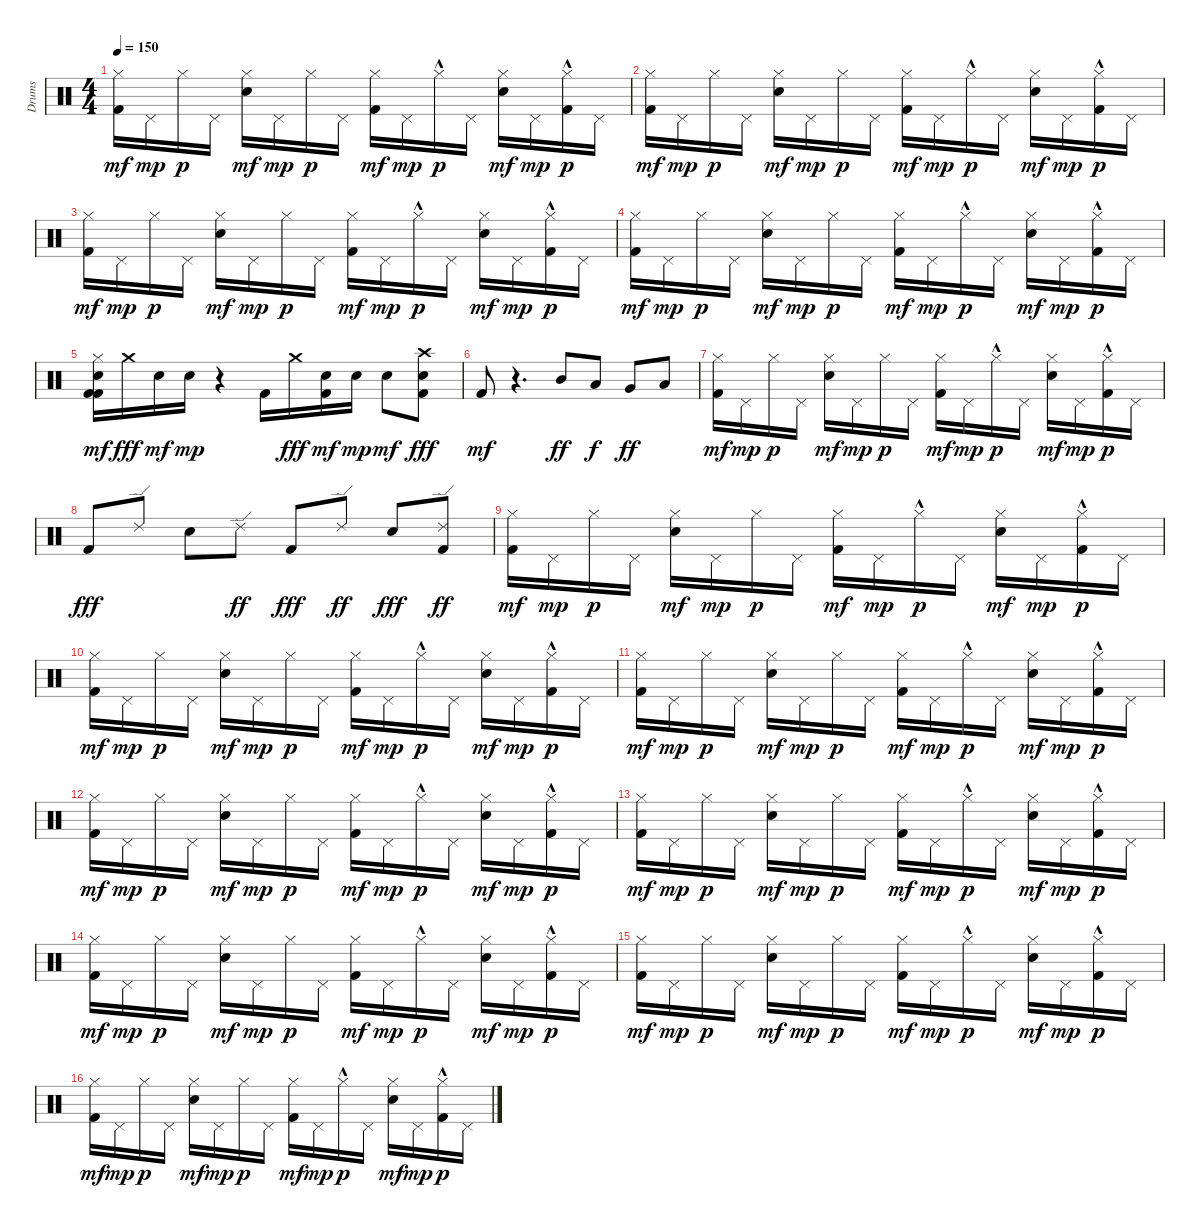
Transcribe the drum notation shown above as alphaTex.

\track ("Drums" "Drums") {instrument percussion}
\staff {score}
\articulation defaults
\ts (4 4)
\tempo 150
\clef neutral
\ks c
("Kick (hit) 2" "Hi-Hat (closed)").16{dy mf} "Pedal Hi-Hat (hit)".16{dy mp} "Hi-Hat (closed)".16{dy p} "Pedal Hi-Hat (hit)".16 ("Snare (hit) 2" "Hi-Hat (closed)").16{dy mf} "Pedal Hi-Hat (hit)".16{dy mp} "Hi-Hat (closed)".16{dy p} "Pedal Hi-Hat (hit)".16 ("Kick (hit) 2" "Hi-Hat (closed)").16{dy mf} "Pedal Hi-Hat (hit)".16{dy mp} "Hi-Hat (closed)"{hac}.16{dy p} "Pedal Hi-Hat (hit)".16 ("Snare (hit) 2" "Hi-Hat (closed)").16{dy mf} "Pedal Hi-Hat (hit)".16{dy mp} ("Kick (hit) 2" "Hi-Hat (closed)"{hac}).16{dy p} "Pedal Hi-Hat (hit)".16 |
("Kick (hit) 2" "Hi-Hat (closed)").16{dy mf} "Pedal Hi-Hat (hit)".16{dy mp} "Hi-Hat (closed)".16{dy p} "Pedal Hi-Hat (hit)".16 ("Snare (hit) 2" "Hi-Hat (closed)").16{dy mf} "Pedal Hi-Hat (hit)".16{dy mp} "Hi-Hat (closed)".16{dy p} "Pedal Hi-Hat (hit)".16 ("Kick (hit) 2" "Hi-Hat (closed)").16{dy mf} "Pedal Hi-Hat (hit)".16{dy mp} "Hi-Hat (closed)"{hac}.16{dy p} "Pedal Hi-Hat (hit)".16 ("Snare (hit) 2" "Hi-Hat (closed)").16{dy mf} "Pedal Hi-Hat (hit)".16{dy mp} ("Kick (hit) 2" "Hi-Hat (closed)"{hac}).16{dy p} "Pedal Hi-Hat (hit)".16 |
("Kick (hit) 2" "Hi-Hat (closed)").16{dy mf} "Pedal Hi-Hat (hit)".16{dy mp} "Hi-Hat (closed)".16{dy p} "Pedal Hi-Hat (hit)".16 ("Snare (hit) 2" "Hi-Hat (closed)").16{dy mf} "Pedal Hi-Hat (hit)".16{dy mp} "Hi-Hat (closed)".16{dy p} "Pedal Hi-Hat (hit)".16 ("Kick (hit) 2" "Hi-Hat (closed)").16{dy mf} "Pedal Hi-Hat (hit)".16{dy mp} "Hi-Hat (closed)"{hac}.16{dy p} "Pedal Hi-Hat (hit)".16 ("Snare (hit) 2" "Hi-Hat (closed)").16{dy mf} "Pedal Hi-Hat (hit)".16{dy mp} ("Kick (hit) 2" "Hi-Hat (closed)"{hac}).16{dy p} "Pedal Hi-Hat (hit)".16 |
("Kick (hit) 2" "Hi-Hat (closed)").16{dy mf} "Pedal Hi-Hat (hit)".16{dy mp} "Hi-Hat (closed)".16{dy p} "Pedal Hi-Hat (hit)".16 ("Snare (hit) 2" "Hi-Hat (closed)").16{dy mf} "Pedal Hi-Hat (hit)".16{dy mp} "Hi-Hat (closed)".16{dy p} "Pedal Hi-Hat (hit)".16 ("Kick (hit) 2" "Hi-Hat (closed)").16{dy mf} "Pedal Hi-Hat (hit)".16{dy mp} "Hi-Hat (closed)"{hac}.16{dy p} "Pedal Hi-Hat (hit)".16 ("Snare (hit) 2" "Hi-Hat (closed)").16{dy mf} "Pedal Hi-Hat (hit)".16{dy mp} ("Kick (hit) 2" "Hi-Hat (closed)"{hac}).16{dy p} "Pedal Hi-Hat (hit)".16 |
("Kick (hit) 2" "Hi-Hat (closed)" "Snare (hit) 2" "Kick (hit) 2").16{dy mf} "Crash medium (hit)".16{dy fff} "Snare (hit) 2".16{dy mf} "Snare (hit) 2".16{dy mp} r.4 "Kick (hit) 2".16 "Crash medium (hit)".16{dy fff} ("Kick (hit) 2" "Snare (hit) 2").16{dy mf} "Snare (hit) 2".16{dy mp} "Snare (hit) 2".8{dy mf} ("Snare (hit) 2" "Kick (hit) 2" "Crash high (hit)").8{dy fff} |
"Kick (hit) 2".8{dy mf} r.4{d} "Mid Tom (hit)".8{dy ff} "Low Tom (hit)".8{dy f} "Very Low Tom (hit)".8{dy ff} "Low Floor Tom (hit)".8 |
("Kick (hit) 2" "Hi-Hat (closed)").16{dy mf} "Pedal Hi-Hat (hit)".16{dy mp} "Hi-Hat (closed)".16{dy p} "Pedal Hi-Hat (hit)".16 ("Snare (hit) 2" "Hi-Hat (closed)").16{dy mf} "Pedal Hi-Hat (hit)".16{dy mp} "Hi-Hat (closed)".16{dy p} "Pedal Hi-Hat (hit)".16 ("Kick (hit) 2" "Hi-Hat (closed)").16{dy mf} "Pedal Hi-Hat (hit)".16{dy mp} "Hi-Hat (closed)"{hac}.16{dy p} "Pedal Hi-Hat (hit)".16 ("Snare (hit) 2" "Hi-Hat (closed)").16{dy mf} "Pedal Hi-Hat (hit)".16{dy mp} ("Kick (hit) 2" "Hi-Hat (closed)"{hac}).16{dy p} "Pedal Hi-Hat (hit)".16 |
"Kick (hit) 2".8{dy fff} "Ride (edge) 2".8 "Snare (hit) 2".8 "Ride (edge) 2".8{dy ff} "Kick (hit) 2".8{dy fff} "Ride (edge) 2".8{dy ff} "Snare (hit) 2".8{dy fff} ("Kick (hit) 2" "Ride (edge) 2").8{dy ff} |
("Kick (hit) 2" "Hi-Hat (closed)").16{dy mf} "Pedal Hi-Hat (hit)".16{dy mp} "Hi-Hat (closed)".16{dy p} "Pedal Hi-Hat (hit)".16 ("Snare (hit) 2" "Hi-Hat (closed)").16{dy mf} "Pedal Hi-Hat (hit)".16{dy mp} "Hi-Hat (closed)".16{dy p} "Pedal Hi-Hat (hit)".16 ("Kick (hit) 2" "Hi-Hat (closed)").16{dy mf} "Pedal Hi-Hat (hit)".16{dy mp} "Hi-Hat (closed)"{hac}.16{dy p} "Pedal Hi-Hat (hit)".16 ("Snare (hit) 2" "Hi-Hat (closed)").16{dy mf} "Pedal Hi-Hat (hit)".16{dy mp} ("Kick (hit) 2" "Hi-Hat (closed)"{hac}).16{dy p} "Pedal Hi-Hat (hit)".16 |
("Kick (hit) 2" "Hi-Hat (closed)").16{dy mf} "Pedal Hi-Hat (hit)".16{dy mp} "Hi-Hat (closed)".16{dy p} "Pedal Hi-Hat (hit)".16 ("Snare (hit) 2" "Hi-Hat (closed)").16{dy mf} "Pedal Hi-Hat (hit)".16{dy mp} "Hi-Hat (closed)".16{dy p} "Pedal Hi-Hat (hit)".16 ("Kick (hit) 2" "Hi-Hat (closed)").16{dy mf} "Pedal Hi-Hat (hit)".16{dy mp} "Hi-Hat (closed)"{hac}.16{dy p} "Pedal Hi-Hat (hit)".16 ("Snare (hit) 2" "Hi-Hat (closed)").16{dy mf} "Pedal Hi-Hat (hit)".16{dy mp} ("Kick (hit) 2" "Hi-Hat (closed)"{hac}).16{dy p} "Pedal Hi-Hat (hit)".16 |
("Kick (hit) 2" "Hi-Hat (closed)").16{dy mf} "Pedal Hi-Hat (hit)".16{dy mp} "Hi-Hat (closed)".16{dy p} "Pedal Hi-Hat (hit)".16 ("Snare (hit) 2" "Hi-Hat (closed)").16{dy mf} "Pedal Hi-Hat (hit)".16{dy mp} "Hi-Hat (closed)".16{dy p} "Pedal Hi-Hat (hit)".16 ("Kick (hit) 2" "Hi-Hat (closed)").16{dy mf} "Pedal Hi-Hat (hit)".16{dy mp} "Hi-Hat (closed)"{hac}.16{dy p} "Pedal Hi-Hat (hit)".16 ("Snare (hit) 2" "Hi-Hat (closed)").16{dy mf} "Pedal Hi-Hat (hit)".16{dy mp} ("Kick (hit) 2" "Hi-Hat (closed)"{hac}).16{dy p} "Pedal Hi-Hat (hit)".16 |
("Kick (hit) 2" "Hi-Hat (closed)").16{dy mf} "Pedal Hi-Hat (hit)".16{dy mp} "Hi-Hat (closed)".16{dy p} "Pedal Hi-Hat (hit)".16 ("Snare (hit) 2" "Hi-Hat (closed)").16{dy mf} "Pedal Hi-Hat (hit)".16{dy mp} "Hi-Hat (closed)".16{dy p} "Pedal Hi-Hat (hit)".16 ("Kick (hit) 2" "Hi-Hat (closed)").16{dy mf} "Pedal Hi-Hat (hit)".16{dy mp} "Hi-Hat (closed)"{hac}.16{dy p} "Pedal Hi-Hat (hit)".16 ("Snare (hit) 2" "Hi-Hat (closed)").16{dy mf} "Pedal Hi-Hat (hit)".16{dy mp} ("Kick (hit) 2" "Hi-Hat (closed)"{hac}).16{dy p} "Pedal Hi-Hat (hit)".16 |
("Kick (hit) 2" "Hi-Hat (closed)").16{dy mf} "Pedal Hi-Hat (hit)".16{dy mp} "Hi-Hat (closed)".16{dy p} "Pedal Hi-Hat (hit)".16 ("Snare (hit) 2" "Hi-Hat (closed)").16{dy mf} "Pedal Hi-Hat (hit)".16{dy mp} "Hi-Hat (closed)".16{dy p} "Pedal Hi-Hat (hit)".16 ("Kick (hit) 2" "Hi-Hat (closed)").16{dy mf} "Pedal Hi-Hat (hit)".16{dy mp} "Hi-Hat (closed)"{hac}.16{dy p} "Pedal Hi-Hat (hit)".16 ("Snare (hit) 2" "Hi-Hat (closed)").16{dy mf} "Pedal Hi-Hat (hit)".16{dy mp} ("Kick (hit) 2" "Hi-Hat (closed)"{hac}).16{dy p} "Pedal Hi-Hat (hit)".16 |
("Kick (hit) 2" "Hi-Hat (closed)").16{dy mf} "Pedal Hi-Hat (hit)".16{dy mp} "Hi-Hat (closed)".16{dy p} "Pedal Hi-Hat (hit)".16 ("Snare (hit) 2" "Hi-Hat (closed)").16{dy mf} "Pedal Hi-Hat (hit)".16{dy mp} "Hi-Hat (closed)".16{dy p} "Pedal Hi-Hat (hit)".16 ("Kick (hit) 2" "Hi-Hat (closed)").16{dy mf} "Pedal Hi-Hat (hit)".16{dy mp} "Hi-Hat (closed)"{hac}.16{dy p} "Pedal Hi-Hat (hit)".16 ("Snare (hit) 2" "Hi-Hat (closed)").16{dy mf} "Pedal Hi-Hat (hit)".16{dy mp} ("Kick (hit) 2" "Hi-Hat (closed)"{hac}).16{dy p} "Pedal Hi-Hat (hit)".16 |
("Kick (hit) 2" "Hi-Hat (closed)").16{dy mf} "Pedal Hi-Hat (hit)".16{dy mp} "Hi-Hat (closed)".16{dy p} "Pedal Hi-Hat (hit)".16 ("Snare (hit) 2" "Hi-Hat (closed)").16{dy mf} "Pedal Hi-Hat (hit)".16{dy mp} "Hi-Hat (closed)".16{dy p} "Pedal Hi-Hat (hit)".16 ("Kick (hit) 2" "Hi-Hat (closed)").16{dy mf} "Pedal Hi-Hat (hit)".16{dy mp} "Hi-Hat (closed)"{hac}.16{dy p} "Pedal Hi-Hat (hit)".16 ("Snare (hit) 2" "Hi-Hat (closed)").16{dy mf} "Pedal Hi-Hat (hit)".16{dy mp} ("Kick (hit) 2" "Hi-Hat (closed)"{hac}).16{dy p} "Pedal Hi-Hat (hit)".16 |
("Kick (hit) 2" "Hi-Hat (closed)").16{dy mf} "Pedal Hi-Hat (hit)".16{dy mp} "Hi-Hat (closed)".16{dy p} "Pedal Hi-Hat (hit)".16 ("Snare (hit) 2" "Hi-Hat (closed)").16{dy mf} "Pedal Hi-Hat (hit)".16{dy mp} "Hi-Hat (closed)".16{dy p} "Pedal Hi-Hat (hit)".16 ("Kick (hit) 2" "Hi-Hat (closed)").16{dy mf} "Pedal Hi-Hat (hit)".16{dy mp} "Hi-Hat (closed)"{hac}.16{dy p} "Pedal Hi-Hat (hit)".16 ("Snare (hit) 2" "Hi-Hat (closed)").16{dy mf} "Pedal Hi-Hat (hit)".16{dy mp} ("Kick (hit) 2" "Hi-Hat (closed)"{hac}).16{dy p} "Pedal Hi-Hat (hit)".16
